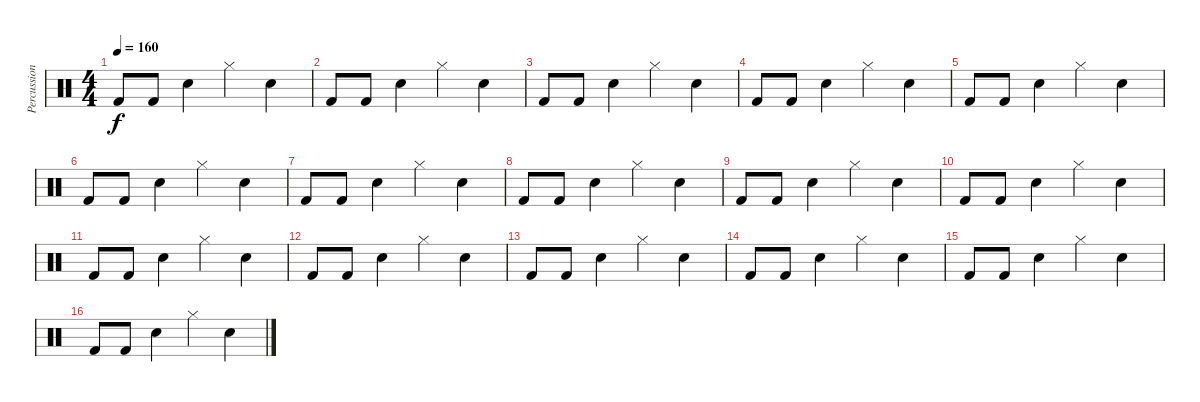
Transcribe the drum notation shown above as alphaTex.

\track ("Percussion" "Percussion") {instrument percussion}
\staff {score}
\articulation defaults
\ts (4 4)
\tempo 160
\clef neutral
\ks c "Kick (hit) 2".8{dy f} "Kick (hit) 2".8 "Snare (hit) 2".4 "Hi-Hat (closed)".4 "Snare (hit) 2".4
|
"Kick (hit) 2".8 "Kick (hit) 2".8 "Snare (hit) 2".4 "Hi-Hat (closed)".4 "Snare (hit) 2".4 |
"Kick (hit) 2".8 "Kick (hit) 2".8 "Snare (hit) 2".4 "Hi-Hat (closed)".4 "Snare (hit) 2".4 |
"Kick (hit) 2".8 "Kick (hit) 2".8 "Snare (hit) 2".4 "Hi-Hat (closed)".4 "Snare (hit) 2".4 |
"Kick (hit) 2".8 "Kick (hit) 2".8 "Snare (hit) 2".4 "Hi-Hat (closed)".4 "Snare (hit) 2".4 |
"Kick (hit) 2".8 "Kick (hit) 2".8 "Snare (hit) 2".4 "Hi-Hat (closed)".4 "Snare (hit) 2".4 |
"Kick (hit) 2".8 "Kick (hit) 2".8 "Snare (hit) 2".4 "Hi-Hat (closed)".4 "Snare (hit) 2".4 |
"Kick (hit) 2".8 "Kick (hit) 2".8 "Snare (hit) 2".4 "Hi-Hat (closed)".4 "Snare (hit) 2".4 |
"Kick (hit) 2".8 "Kick (hit) 2".8 "Snare (hit) 2".4 "Hi-Hat (closed)".4 "Snare (hit) 2".4 |
"Kick (hit) 2".8 "Kick (hit) 2".8 "Snare (hit) 2".4 "Hi-Hat (closed)".4 "Snare (hit) 2".4 |
"Kick (hit) 2".8 "Kick (hit) 2".8 "Snare (hit) 2".4 "Hi-Hat (closed)".4 "Snare (hit) 2".4 |
"Kick (hit) 2".8 "Kick (hit) 2".8 "Snare (hit) 2".4 "Hi-Hat (closed)".4 "Snare (hit) 2".4 |
"Kick (hit) 2".8 "Kick (hit) 2".8 "Snare (hit) 2".4 "Hi-Hat (closed)".4 "Snare (hit) 2".4 |
"Kick (hit) 2".8 "Kick (hit) 2".8 "Snare (hit) 2".4 "Hi-Hat (closed)".4 "Snare (hit) 2".4 |
"Kick (hit) 2".8 "Kick (hit) 2".8 "Snare (hit) 2".4 "Hi-Hat (closed)".4 "Snare (hit) 2".4 |
"Kick (hit) 2".8 "Kick (hit) 2".8 "Snare (hit) 2".4 "Hi-Hat (closed)".4 "Snare (hit) 2".4
